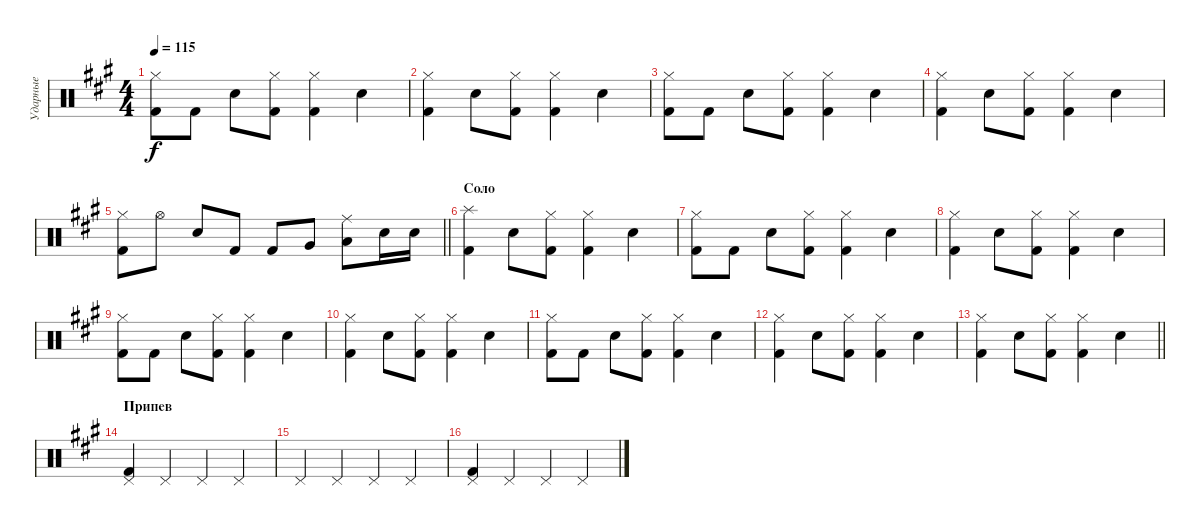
\track ("Ударные" "Ударные") {instrument percussion}
\staff {score}
\articulation defaults
\ts (4 4)
\tempo 115
\clef neutral
\ks f#minor
("Hi-Hat (closed)" "Kick (hit) 2").8{dy f} "Kick (hit) 2".8 "Snare (hit) 2".8 ("Hi-Hat (closed)" "Kick (hit) 2").8{volume 12} ("Hi-Hat (closed)" "Kick (hit) 2").4{volume 11} "Snare (hit) 2".4 |
("Hi-Hat (closed)" "Kick (hit) 2").4 "Snare (hit) 2".8 ("Hi-Hat (closed)" "Kick (hit) 2").8{volume 12} ("Hi-Hat (closed)" "Kick (hit) 2").4{volume 11} "Snare (hit) 2".4 |
("Hi-Hat (closed)" "Kick (hit) 2").8 "Kick (hit) 2".8 "Snare (hit) 2".8 ("Hi-Hat (closed)" "Kick (hit) 2").8{volume 12} ("Hi-Hat (closed)" "Kick (hit) 2").4{volume 11} "Snare (hit) 2".4 |
("Hi-Hat (closed)" "Kick (hit) 2").4 "Snare (hit) 2".8 ("Hi-Hat (closed)" "Kick (hit) 2").8{volume 12} ("Hi-Hat (closed)" "Kick (hit) 2").4{volume 11} "Snare (hit) 2".4 |
\barLineRight lightlight
("Hi-Hat (closed)" "Kick (hit) 2").8 "Hi-Hat (open)".8 "Snare (hit) 2".8 "Kick (hit) 2".8{volume 12} "Kick (hit) 2".8{volume 12} "Very Low Tom (hit)".8{volume 11} ("Ride (middle)" "Low Floor Tom (hit)").8 "Electric Snare (hit)".16 "Electric Snare (hit)".16 |
\section ("" "Соло")
("Splash (hit)" "Kick (hit) 2").4 "Snare (hit) 2".8 ("Hi-Hat (closed)" "Kick (hit) 2").8{volume 12} ("Hi-Hat (closed)" "Kick (hit) 2").4{volume 11} "Snare (hit) 2".4 |
("Hi-Hat (closed)" "Kick (hit) 2").8 "Kick (hit) 2".8 "Snare (hit) 2".8 ("Hi-Hat (closed)" "Kick (hit) 2").8{volume 12} ("Hi-Hat (closed)" "Kick (hit) 2").4{volume 11} "Snare (hit) 2".4 |
("Hi-Hat (closed)" "Kick (hit) 2").4 "Snare (hit) 2".8 ("Hi-Hat (closed)" "Kick (hit) 2").8{volume 12} ("Hi-Hat (closed)" "Kick (hit) 2").4{volume 11} "Snare (hit) 2".4 |
("Hi-Hat (closed)" "Kick (hit) 2").8 "Kick (hit) 2".8 "Snare (hit) 2".8 ("Hi-Hat (closed)" "Kick (hit) 2").8{volume 12} ("Hi-Hat (closed)" "Kick (hit) 2").4{volume 11} "Snare (hit) 2".4 |
("Hi-Hat (closed)" "Kick (hit) 2").4 "Snare (hit) 2".8 ("Hi-Hat (closed)" "Kick (hit) 2").8{volume 12} ("Hi-Hat (closed)" "Kick (hit) 2").4{volume 11} "Snare (hit) 2".4 |
("Hi-Hat (closed)" "Kick (hit) 2").8 "Kick (hit) 2".8 "Snare (hit) 2".8 ("Hi-Hat (closed)" "Kick (hit) 2").8{volume 12} ("Hi-Hat (closed)" "Kick (hit) 2").4{volume 11} "Snare (hit) 2".4 |
("Hi-Hat (closed)" "Kick (hit) 2").4 "Snare (hit) 2".8 ("Hi-Hat (closed)" "Kick (hit) 2").8{volume 12} ("Hi-Hat (closed)" "Kick (hit) 2").4{volume 11} "Snare (hit) 2".4 |
\barLineRight lightlight
("Hi-Hat (closed)" "Kick (hit) 2").4 "Snare (hit) 2".8 ("Hi-Hat (closed)" "Kick (hit) 2").8{volume 12} ("Hi-Hat (closed)" "Kick (hit) 2").4{volume 11} "Snare (hit) 2".4 |
\section ("" "Припев")
("Pedal Hi-Hat (hit)" "Kick (hit) 2").4 "Pedal Hi-Hat (hit)".4 "Pedal Hi-Hat (hit)".4 "Pedal Hi-Hat (hit)".4 |
"Pedal Hi-Hat (hit)".4 "Pedal Hi-Hat (hit)".4 "Pedal Hi-Hat (hit)".4 "Pedal Hi-Hat (hit)".4 |
("Pedal Hi-Hat (hit)" "Kick (hit) 2").4 "Pedal Hi-Hat (hit)".4 "Pedal Hi-Hat (hit)".4 "Pedal Hi-Hat (hit)".4
